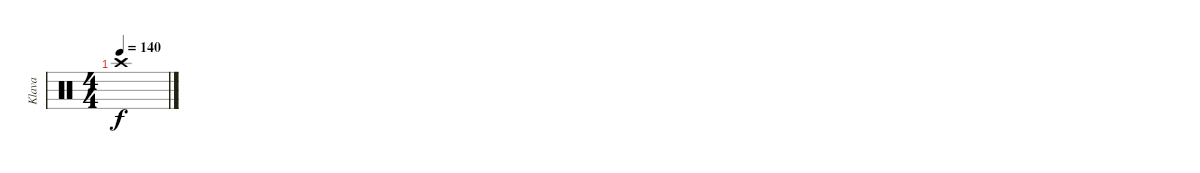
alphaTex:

\track ("Klava" "Klava") {instrument percussion}
\staff {score}
\articulation defaults
\ts (4 4)
\tempo 140
\clef neutral
\ks c "Crash high (hit)".1{dy f}
